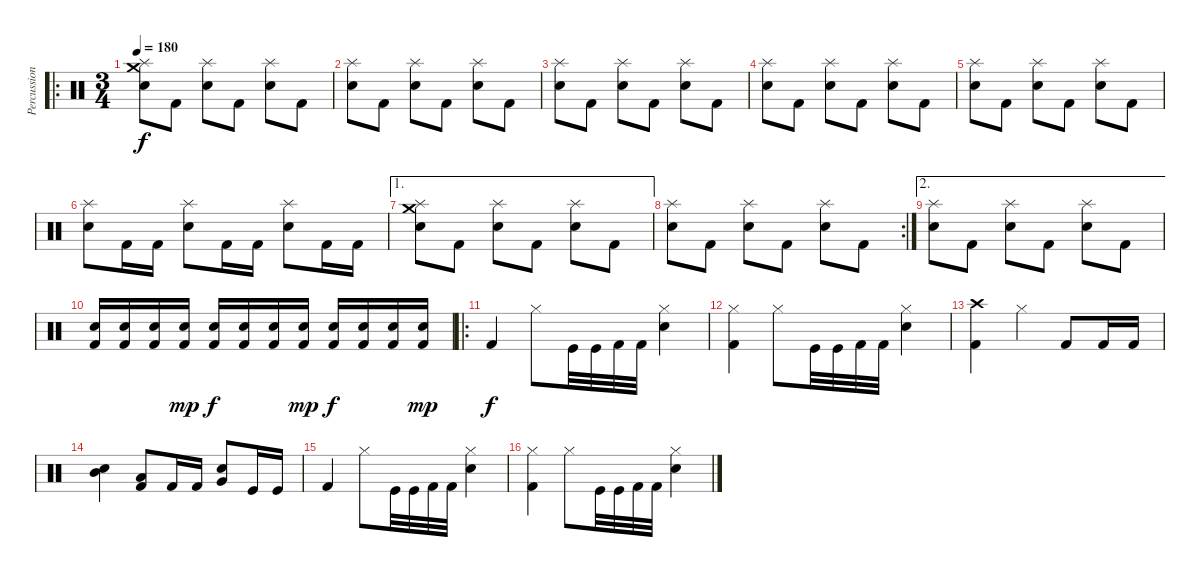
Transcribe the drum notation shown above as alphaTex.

\track ("Percussion" "Percussion") {instrument percussion}
\staff {score}
\articulation defaults
\ro
\ts (3 4)
\tempo 180
\clef neutral
\ks c
("Crash medium (hit)" "Splash (hit)" "Snare (hit) 2").8{dy f} "Kick (hit) 2".8 ("Splash (hit)" "Snare (hit) 2").8 "Kick (hit) 2".8 ("Splash (hit)" "Snare (hit) 2").8 "Kick (hit) 2".8 |
("Splash (hit)" "Snare (hit) 2").8 "Kick (hit) 2".8 ("Splash (hit)" "Snare (hit) 2").8 "Kick (hit) 2".8 ("Splash (hit)" "Snare (hit) 2").8 "Kick (hit) 2".8 |
("Splash (hit)" "Snare (hit) 2").8 "Kick (hit) 2".8 ("Splash (hit)" "Snare (hit) 2").8 "Kick (hit) 2".8 ("Splash (hit)" "Snare (hit) 2").8 "Kick (hit) 2".8 |
("Splash (hit)" "Snare (hit) 2").8 "Kick (hit) 2".8 ("Splash (hit)" "Snare (hit) 2").8 "Kick (hit) 2".8 ("Splash (hit)" "Snare (hit) 2").8 "Kick (hit) 2".8 |
("Splash (hit)" "Snare (hit) 2").8 "Kick (hit) 2".8 ("Splash (hit)" "Snare (hit) 2").8 "Kick (hit) 2".8 ("Splash (hit)" "Snare (hit) 2").8 "Kick (hit) 2".8 |
("Splash (hit)" "Snare (hit) 2").8 "Kick (hit) 2".16 "Kick (hit) 2".16 ("Splash (hit)" "Snare (hit) 2").8 "Kick (hit) 2".16 "Kick (hit) 2".16 ("Splash (hit)" "Snare (hit) 2").8 "Kick (hit) 2".16 "Kick (hit) 2".16 |
\ae 1
("Crash medium (hit)" "Splash (hit)" "Snare (hit) 2").8 "Kick (hit) 2".8 ("Splash (hit)" "Snare (hit) 2").8 "Kick (hit) 2".8 ("Splash (hit)" "Snare (hit) 2").8 "Kick (hit) 2".8 |
\rc 2
("Splash (hit)" "Snare (hit) 2").8 "Kick (hit) 2".8 ("Splash (hit)" "Snare (hit) 2").8 "Kick (hit) 2".8 ("Splash (hit)" "Snare (hit) 2").8 "Kick (hit) 2".8 |
\ae 2
("Splash (hit)" "Snare (hit) 2").8 "Kick (hit) 2".8 ("Splash (hit)" "Snare (hit) 2").8 "Kick (hit) 2".8 ("Splash (hit)" "Snare (hit) 2").8 "Kick (hit) 2".8 |
("Snare (hit) 2" "Kick (hit) 2").16 ("Snare (hit) 2" "Kick (hit) 2").16 ("Snare (hit) 2" "Kick (hit) 2").16 ("Snare (hit) 2" "Kick (hit) 2").16{dy mp} ("Snare (hit) 2" "Kick (hit) 2").16{dy f} ("Snare (hit) 2" "Kick (hit) 2").16 ("Snare (hit) 2" "Kick (hit) 2").16 ("Snare (hit) 2" "Kick (hit) 2").16{dy mp} ("Snare (hit) 2" "Kick (hit) 2").16{dy f} ("Snare (hit) 2" "Kick (hit) 2").16 ("Snare (hit) 2" "Kick (hit) 2").16 ("Snare (hit) 2" "Kick (hit) 2").16{dy mp} |
\ro "Kick (hit) 2".4{dy f} "Hi-Hat (closed)".8 "Kick (hit)".32 "Kick (hit)".32 "Kick (hit) 2".32 "Kick (hit) 2".32
("Hi-Hat (closed)" "Snare (hit) 2").4 |
("Hi-Hat (closed)" "Kick (hit) 2").4 "Hi-Hat (closed)".8 "Kick (hit)".32 "Kick (hit)".32 "Kick (hit) 2".32 "Kick (hit) 2".32 ("Hi-Hat (closed)" "Snare (hit) 2").4 |
("Crash high (hit)" "Kick (hit) 2").4 "Hi-Hat (closed)".4 "Kick (hit) 2".8 "Kick (hit) 2".16 "Kick (hit) 2".16 |
("Mid Tom (hit)" "Snare (hit) 2").4 ("Low Tom (hit)" "Kick (hit) 2").8 "Kick (hit) 2".16 "Kick (hit) 2".16 ("Very Low Tom (hit)" "Snare (hit) 2").8 "Kick (hit)".16 "Kick (hit)".16 |
"Kick (hit) 2".4 "Hi-Hat (closed)".8 "Kick (hit)".32 "Kick (hit)".32 "Kick (hit) 2".32 "Kick (hit) 2".32 ("Hi-Hat (closed)" "Snare (hit) 2").4 |
("Hi-Hat (closed)" "Kick (hit) 2").4 "Hi-Hat (closed)".8 "Kick (hit)".32 "Kick (hit)".32 "Kick (hit) 2".32 "Kick (hit) 2".32 ("Hi-Hat (closed)" "Snare (hit) 2").4
